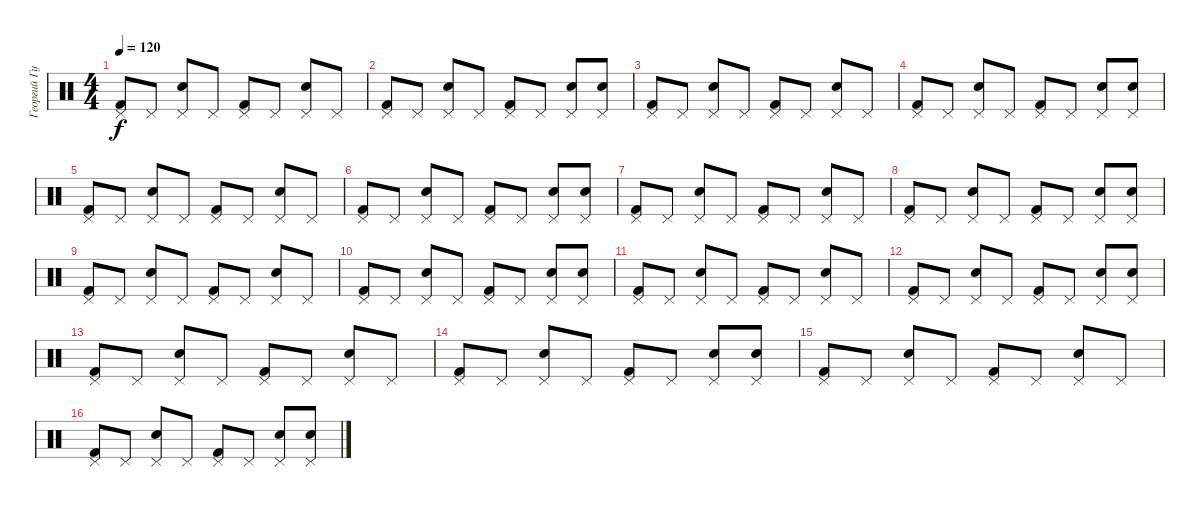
\track ("Георгий Гурьянов" "Георгий Гу") {instrument percussion}
\staff {score}
\articulation defaults
\ts (4 4)
\tempo 120
\clef neutral
\ks c
("Pedal Hi-Hat (hit)" "Kick (hit) 2").8{dy f} "Pedal Hi-Hat (hit)".8 ("Pedal Hi-Hat (hit)" "Snare (hit) 2").8 "Pedal Hi-Hat (hit)".8 ("Pedal Hi-Hat (hit)" "Kick (hit) 2").8 "Pedal Hi-Hat (hit)".8 ("Pedal Hi-Hat (hit)" "Snare (hit) 2").8 "Pedal Hi-Hat (hit)".8 |
("Pedal Hi-Hat (hit)" "Kick (hit) 2").8 "Pedal Hi-Hat (hit)".8 ("Pedal Hi-Hat (hit)" "Snare (hit) 2").8 "Pedal Hi-Hat (hit)".8 ("Pedal Hi-Hat (hit)" "Kick (hit) 2").8 "Pedal Hi-Hat (hit)".8 ("Pedal Hi-Hat (hit)" "Snare (hit) 2").8 ("Pedal Hi-Hat (hit)" "Snare (hit) 2").8 |
("Pedal Hi-Hat (hit)" "Kick (hit) 2").8 "Pedal Hi-Hat (hit)".8 ("Pedal Hi-Hat (hit)" "Snare (hit) 2").8 "Pedal Hi-Hat (hit)".8 ("Pedal Hi-Hat (hit)" "Kick (hit) 2").8 "Pedal Hi-Hat (hit)".8 ("Pedal Hi-Hat (hit)" "Snare (hit) 2").8 "Pedal Hi-Hat (hit)".8 |
("Pedal Hi-Hat (hit)" "Kick (hit) 2").8 "Pedal Hi-Hat (hit)".8 ("Pedal Hi-Hat (hit)" "Snare (hit) 2").8 "Pedal Hi-Hat (hit)".8 ("Pedal Hi-Hat (hit)" "Kick (hit) 2").8 "Pedal Hi-Hat (hit)".8 ("Pedal Hi-Hat (hit)" "Snare (hit) 2").8 ("Pedal Hi-Hat (hit)" "Snare (hit) 2").8 |
("Pedal Hi-Hat (hit)" "Kick (hit) 2").8 "Pedal Hi-Hat (hit)".8 ("Pedal Hi-Hat (hit)" "Snare (hit) 2").8 "Pedal Hi-Hat (hit)".8 ("Pedal Hi-Hat (hit)" "Kick (hit) 2").8 "Pedal Hi-Hat (hit)".8 ("Pedal Hi-Hat (hit)" "Snare (hit) 2").8 "Pedal Hi-Hat (hit)".8 |
("Pedal Hi-Hat (hit)" "Kick (hit) 2").8 "Pedal Hi-Hat (hit)".8 ("Pedal Hi-Hat (hit)" "Snare (hit) 2").8 "Pedal Hi-Hat (hit)".8 ("Pedal Hi-Hat (hit)" "Kick (hit) 2").8 "Pedal Hi-Hat (hit)".8 ("Pedal Hi-Hat (hit)" "Snare (hit) 2").8 ("Pedal Hi-Hat (hit)" "Snare (hit) 2").8 |
("Pedal Hi-Hat (hit)" "Kick (hit) 2").8 "Pedal Hi-Hat (hit)".8 ("Pedal Hi-Hat (hit)" "Snare (hit) 2").8 "Pedal Hi-Hat (hit)".8 ("Pedal Hi-Hat (hit)" "Kick (hit) 2").8 "Pedal Hi-Hat (hit)".8 ("Pedal Hi-Hat (hit)" "Snare (hit) 2").8 "Pedal Hi-Hat (hit)".8 |
("Pedal Hi-Hat (hit)" "Kick (hit) 2").8 "Pedal Hi-Hat (hit)".8 ("Pedal Hi-Hat (hit)" "Snare (hit) 2").8 "Pedal Hi-Hat (hit)".8 ("Pedal Hi-Hat (hit)" "Kick (hit) 2").8 "Pedal Hi-Hat (hit)".8 ("Pedal Hi-Hat (hit)" "Snare (hit) 2").8 ("Pedal Hi-Hat (hit)" "Snare (hit) 2").8 |
("Pedal Hi-Hat (hit)" "Kick (hit) 2").8 "Pedal Hi-Hat (hit)".8 ("Pedal Hi-Hat (hit)" "Snare (hit) 2").8 "Pedal Hi-Hat (hit)".8 ("Pedal Hi-Hat (hit)" "Kick (hit) 2").8 "Pedal Hi-Hat (hit)".8 ("Pedal Hi-Hat (hit)" "Snare (hit) 2").8 "Pedal Hi-Hat (hit)".8 |
("Pedal Hi-Hat (hit)" "Kick (hit) 2").8 "Pedal Hi-Hat (hit)".8 ("Pedal Hi-Hat (hit)" "Snare (hit) 2").8 "Pedal Hi-Hat (hit)".8 ("Pedal Hi-Hat (hit)" "Kick (hit) 2").8 "Pedal Hi-Hat (hit)".8 ("Pedal Hi-Hat (hit)" "Snare (hit) 2").8 ("Pedal Hi-Hat (hit)" "Snare (hit) 2").8 |
("Pedal Hi-Hat (hit)" "Kick (hit) 2").8 "Pedal Hi-Hat (hit)".8 ("Pedal Hi-Hat (hit)" "Snare (hit) 2").8 "Pedal Hi-Hat (hit)".8 ("Pedal Hi-Hat (hit)" "Kick (hit) 2").8 "Pedal Hi-Hat (hit)".8 ("Pedal Hi-Hat (hit)" "Snare (hit) 2").8 "Pedal Hi-Hat (hit)".8 |
("Pedal Hi-Hat (hit)" "Kick (hit) 2").8 "Pedal Hi-Hat (hit)".8 ("Pedal Hi-Hat (hit)" "Snare (hit) 2").8 "Pedal Hi-Hat (hit)".8 ("Pedal Hi-Hat (hit)" "Kick (hit) 2").8 "Pedal Hi-Hat (hit)".8 ("Pedal Hi-Hat (hit)" "Snare (hit) 2").8 ("Pedal Hi-Hat (hit)" "Snare (hit) 2").8 |
("Pedal Hi-Hat (hit)" "Kick (hit) 2").8 "Pedal Hi-Hat (hit)".8 ("Pedal Hi-Hat (hit)" "Snare (hit) 2").8 "Pedal Hi-Hat (hit)".8 ("Pedal Hi-Hat (hit)" "Kick (hit) 2").8 "Pedal Hi-Hat (hit)".8 ("Pedal Hi-Hat (hit)" "Snare (hit) 2").8 "Pedal Hi-Hat (hit)".8 |
("Pedal Hi-Hat (hit)" "Kick (hit) 2").8 "Pedal Hi-Hat (hit)".8 ("Pedal Hi-Hat (hit)" "Snare (hit) 2").8 "Pedal Hi-Hat (hit)".8 ("Pedal Hi-Hat (hit)" "Kick (hit) 2").8 "Pedal Hi-Hat (hit)".8 ("Pedal Hi-Hat (hit)" "Snare (hit) 2").8 ("Pedal Hi-Hat (hit)" "Snare (hit) 2").8 |
("Pedal Hi-Hat (hit)" "Kick (hit) 2").8 "Pedal Hi-Hat (hit)".8 ("Pedal Hi-Hat (hit)" "Snare (hit) 2").8 "Pedal Hi-Hat (hit)".8 ("Pedal Hi-Hat (hit)" "Kick (hit) 2").8 "Pedal Hi-Hat (hit)".8 ("Pedal Hi-Hat (hit)" "Snare (hit) 2").8 "Pedal Hi-Hat (hit)".8 |
("Pedal Hi-Hat (hit)" "Kick (hit) 2").8 "Pedal Hi-Hat (hit)".8 ("Pedal Hi-Hat (hit)" "Snare (hit) 2").8 "Pedal Hi-Hat (hit)".8 ("Pedal Hi-Hat (hit)" "Kick (hit) 2").8 "Pedal Hi-Hat (hit)".8 ("Pedal Hi-Hat (hit)" "Snare (hit) 2").8 ("Pedal Hi-Hat (hit)" "Snare (hit) 2").8
